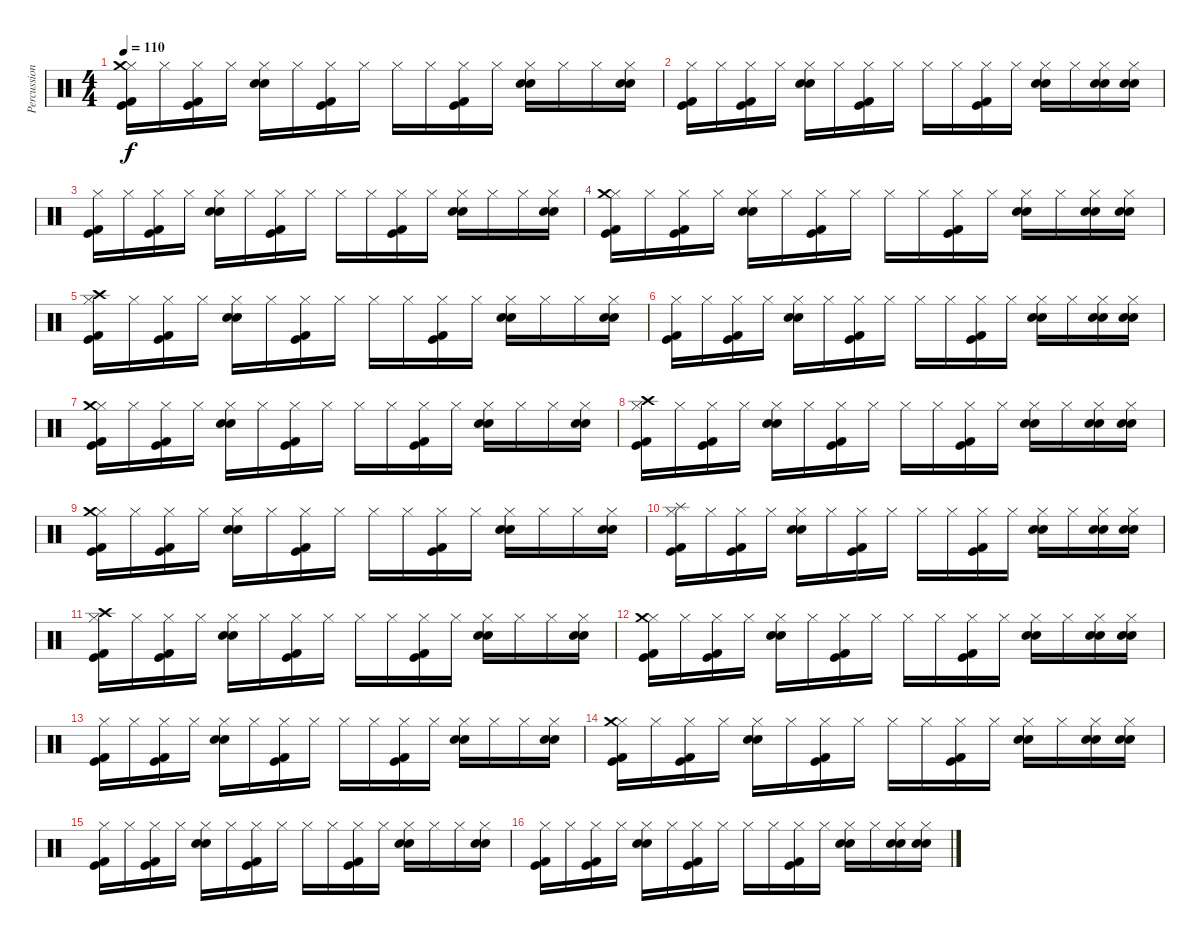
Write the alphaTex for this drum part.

\track ("Percussion" "Percussion") {instrument percussion}
\staff {score}
\articulation defaults
\ts (4 4)
\tempo 110
\clef neutral
\ks c
("Hi-Hat (closed)" "Crash medium (hit)" "Kick (hit) 2" "Kick (hit)").16{dy f} "Hi-Hat (closed)".16 ("Hi-Hat (closed)" "Kick (hit) 2" "Kick (hit)").16 "Hi-Hat (closed)".16 ("Hi-Hat (closed)" "Electric Snare (hit)" "Snare (hit) 2").16 "Hi-Hat (closed)".16 ("Hi-Hat (closed)" "Kick (hit) 2" "Kick (hit)").16 "Hi-Hat (closed)".16 "Hi-Hat (closed)".16 "Hi-Hat (closed)".16 ("Hi-Hat (closed)" "Kick (hit) 2" "Kick (hit)").16 "Hi-Hat (closed)".16 ("Hi-Hat (closed)" "Electric Snare (hit)" "Snare (hit) 2").16 "Hi-Hat (closed)".16 "Hi-Hat (closed)".16 ("Hi-Hat (closed)" "Electric Snare (hit)" "Snare (hit) 2").16 |
("Hi-Hat (closed)" "Kick (hit) 2" "Kick (hit)").16 "Hi-Hat (closed)".16 ("Hi-Hat (closed)" "Kick (hit) 2" "Kick (hit)").16 "Hi-Hat (closed)".16 ("Hi-Hat (closed)" "Electric Snare (hit)" "Snare (hit) 2").16 "Hi-Hat (closed)".16 ("Hi-Hat (closed)" "Kick (hit) 2" "Kick (hit)").16 "Hi-Hat (closed)".16 "Hi-Hat (closed)".16 "Hi-Hat (closed)".16 ("Hi-Hat (closed)" "Kick (hit) 2" "Kick (hit)").16 "Hi-Hat (closed)".16 ("Hi-Hat (closed)" "Electric Snare (hit)" "Snare (hit) 2").16 "Hi-Hat (closed)".16 ("Hi-Hat (closed)" "Electric Snare (hit)" "Snare (hit) 2").16 ("Hi-Hat (closed)" "Electric Snare (hit)" "Snare (hit) 2").16 |
("Hi-Hat (closed)" "Kick (hit) 2" "Kick (hit)").16 "Hi-Hat (closed)".16 ("Hi-Hat (closed)" "Kick (hit) 2" "Kick (hit)").16 "Hi-Hat (closed)".16 ("Hi-Hat (closed)" "Electric Snare (hit)" "Snare (hit) 2").16 "Hi-Hat (closed)".16 ("Hi-Hat (closed)" "Kick (hit) 2" "Kick (hit)").16 "Hi-Hat (closed)".16 "Hi-Hat (closed)".16 "Hi-Hat (closed)".16 ("Hi-Hat (closed)" "Kick (hit) 2" "Kick (hit)").16 "Hi-Hat (closed)".16 ("Hi-Hat (closed)" "Electric Snare (hit)" "Snare (hit) 2").16 "Hi-Hat (closed)".16 "Hi-Hat (closed)".16 ("Hi-Hat (closed)" "Electric Snare (hit)" "Snare (hit) 2").16 |
("Hi-Hat (closed)" "Crash medium (hit)" "Kick (hit) 2" "Kick (hit)").16 "Hi-Hat (closed)".16 ("Hi-Hat (closed)" "Kick (hit) 2" "Kick (hit)").16 "Hi-Hat (closed)".16 ("Hi-Hat (closed)" "Electric Snare (hit)" "Snare (hit) 2").16 "Hi-Hat (closed)".16 ("Hi-Hat (closed)" "Kick (hit) 2" "Kick (hit)").16 "Hi-Hat (closed)".16 "Hi-Hat (closed)".16 "Hi-Hat (closed)".16 ("Hi-Hat (closed)" "Kick (hit) 2" "Kick (hit)").16 "Hi-Hat (closed)".16 ("Hi-Hat (closed)" "Electric Snare (hit)" "Snare (hit) 2").16 "Hi-Hat (closed)".16 ("Hi-Hat (closed)" "Electric Snare (hit)" "Snare (hit) 2").16 ("Hi-Hat (closed)" "Electric Snare (hit)" "Snare (hit) 2").16 |
("Hi-Hat (closed)" "Crash high (hit)" "Kick (hit) 2" "Kick (hit)").16 "Hi-Hat (closed)".16 ("Hi-Hat (closed)" "Kick (hit) 2" "Kick (hit)").16 "Hi-Hat (closed)".16 ("Hi-Hat (closed)" "Electric Snare (hit)" "Snare (hit) 2").16 "Hi-Hat (closed)".16 ("Hi-Hat (closed)" "Kick (hit) 2" "Kick (hit)").16 "Hi-Hat (closed)".16 "Hi-Hat (closed)".16 "Hi-Hat (closed)".16 ("Hi-Hat (closed)" "Kick (hit) 2" "Kick (hit)").16 "Hi-Hat (closed)".16 ("Hi-Hat (closed)" "Electric Snare (hit)" "Snare (hit) 2").16 "Hi-Hat (closed)".16 "Hi-Hat (closed)".16 ("Hi-Hat (closed)" "Electric Snare (hit)" "Snare (hit) 2").16 |
("Hi-Hat (closed)" "Kick (hit) 2" "Kick (hit)").16 "Hi-Hat (closed)".16 ("Hi-Hat (closed)" "Kick (hit) 2" "Kick (hit)").16 "Hi-Hat (closed)".16 ("Hi-Hat (closed)" "Electric Snare (hit)" "Snare (hit) 2").16 "Hi-Hat (closed)".16 ("Hi-Hat (closed)" "Kick (hit) 2" "Kick (hit)").16 "Hi-Hat (closed)".16 "Hi-Hat (closed)".16 "Hi-Hat (closed)".16 ("Hi-Hat (closed)" "Kick (hit) 2" "Kick (hit)").16 "Hi-Hat (closed)".16 ("Hi-Hat (closed)" "Electric Snare (hit)" "Snare (hit) 2").16 "Hi-Hat (closed)".16 ("Hi-Hat (closed)" "Electric Snare (hit)" "Snare (hit) 2").16 ("Hi-Hat (closed)" "Electric Snare (hit)" "Snare (hit) 2").16 |
("Hi-Hat (closed)" "Crash medium (hit)" "Kick (hit) 2" "Kick (hit)").16 "Hi-Hat (closed)".16 ("Hi-Hat (closed)" "Kick (hit) 2" "Kick (hit)").16 "Hi-Hat (closed)".16 ("Hi-Hat (closed)" "Electric Snare (hit)" "Snare (hit) 2").16 "Hi-Hat (closed)".16 ("Hi-Hat (closed)" "Kick (hit) 2" "Kick (hit)").16 "Hi-Hat (closed)".16 "Hi-Hat (closed)".16 "Hi-Hat (closed)".16 ("Hi-Hat (closed)" "Kick (hit) 2" "Kick (hit)").16 "Hi-Hat (closed)".16 ("Hi-Hat (closed)" "Electric Snare (hit)" "Snare (hit) 2").16 "Hi-Hat (closed)".16 "Hi-Hat (closed)".16 ("Hi-Hat (closed)" "Electric Snare (hit)" "Snare (hit) 2").16 |
("Hi-Hat (closed)" "Crash high (hit)" "Kick (hit) 2" "Kick (hit)").16 "Hi-Hat (closed)".16 ("Hi-Hat (closed)" "Kick (hit) 2" "Kick (hit)").16 "Hi-Hat (closed)".16 ("Hi-Hat (closed)" "Electric Snare (hit)" "Snare (hit) 2").16 "Hi-Hat (closed)".16 ("Hi-Hat (closed)" "Kick (hit) 2" "Kick (hit)").16 "Hi-Hat (closed)".16 "Hi-Hat (closed)".16 "Hi-Hat (closed)".16 ("Hi-Hat (closed)" "Kick (hit) 2" "Kick (hit)").16 "Hi-Hat (closed)".16 ("Hi-Hat (closed)" "Electric Snare (hit)" "Snare (hit) 2").16 "Hi-Hat (closed)".16 ("Hi-Hat (closed)" "Electric Snare (hit)" "Snare (hit) 2").16 ("Hi-Hat (closed)" "Electric Snare (hit)" "Snare (hit) 2").16 |
("Hi-Hat (closed)" "Crash medium (hit)" "Kick (hit) 2" "Kick (hit)").16 "Hi-Hat (closed)".16 ("Hi-Hat (closed)" "Kick (hit) 2" "Kick (hit)").16 "Hi-Hat (closed)".16 ("Hi-Hat (closed)" "Electric Snare (hit)" "Snare (hit) 2").16 "Hi-Hat (closed)".16 ("Hi-Hat (closed)" "Kick (hit) 2" "Kick (hit)").16 "Hi-Hat (closed)".16 "Hi-Hat (closed)".16 "Hi-Hat (closed)".16 ("Hi-Hat (closed)" "Kick (hit) 2" "Kick (hit)").16 "Hi-Hat (closed)".16 ("Hi-Hat (closed)" "Electric Snare (hit)" "Snare (hit) 2").16 "Hi-Hat (closed)".16 "Hi-Hat (closed)".16 ("Hi-Hat (closed)" "Electric Snare (hit)" "Snare (hit) 2").16 |
("Hi-Hat (closed)" "Splash (hit)" "Kick (hit) 2" "Kick (hit)").16 "Hi-Hat (closed)".16 ("Hi-Hat (closed)" "Kick (hit) 2" "Kick (hit)").16 "Hi-Hat (closed)".16 ("Hi-Hat (closed)" "Electric Snare (hit)" "Snare (hit) 2").16 "Hi-Hat (closed)".16 ("Hi-Hat (closed)" "Kick (hit) 2" "Kick (hit)").16 "Hi-Hat (closed)".16 "Hi-Hat (closed)".16 "Hi-Hat (closed)".16 ("Hi-Hat (closed)" "Kick (hit) 2" "Kick (hit)").16 "Hi-Hat (closed)".16 ("Hi-Hat (closed)" "Electric Snare (hit)" "Snare (hit) 2").16 "Hi-Hat (closed)".16 ("Hi-Hat (closed)" "Electric Snare (hit)" "Snare (hit) 2").16 ("Hi-Hat (closed)" "Electric Snare (hit)" "Snare (hit) 2").16 |
("Hi-Hat (closed)" "Crash high (hit)" "Kick (hit) 2" "Kick (hit)").16 "Hi-Hat (closed)".16 ("Hi-Hat (closed)" "Kick (hit) 2" "Kick (hit)").16 "Hi-Hat (closed)".16 ("Hi-Hat (closed)" "Electric Snare (hit)" "Snare (hit) 2").16 "Hi-Hat (closed)".16 ("Hi-Hat (closed)" "Kick (hit) 2" "Kick (hit)").16 "Hi-Hat (closed)".16 "Hi-Hat (closed)".16 "Hi-Hat (closed)".16 ("Hi-Hat (closed)" "Kick (hit) 2" "Kick (hit)").16 "Hi-Hat (closed)".16 ("Hi-Hat (closed)" "Electric Snare (hit)" "Snare (hit) 2").16 "Hi-Hat (closed)".16 "Hi-Hat (closed)".16 ("Hi-Hat (closed)" "Electric Snare (hit)" "Snare (hit) 2").16 |
("Hi-Hat (closed)" "Crash medium (hit)" "Kick (hit) 2" "Kick (hit)").16{volume 7} "Hi-Hat (closed)".16 ("Hi-Hat (closed)" "Kick (hit) 2" "Kick (hit)").16 "Hi-Hat (closed)".16 ("Hi-Hat (closed)" "Electric Snare (hit)" "Snare (hit) 2").16 "Hi-Hat (closed)".16 ("Hi-Hat (closed)" "Kick (hit) 2" "Kick (hit)").16 "Hi-Hat (closed)".16 "Hi-Hat (closed)".16 "Hi-Hat (closed)".16 ("Hi-Hat (closed)" "Kick (hit) 2" "Kick (hit)").16 "Hi-Hat (closed)".16 ("Hi-Hat (closed)" "Electric Snare (hit)" "Snare (hit) 2").16 "Hi-Hat (closed)".16 ("Hi-Hat (closed)" "Electric Snare (hit)" "Snare (hit) 2").16 ("Hi-Hat (closed)" "Electric Snare (hit)" "Snare (hit) 2").16 |
("Hi-Hat (closed)" "Kick (hit) 2" "Kick (hit)").16 "Hi-Hat (closed)".16 ("Hi-Hat (closed)" "Kick (hit) 2" "Kick (hit)").16 "Hi-Hat (closed)".16 ("Hi-Hat (closed)" "Electric Snare (hit)" "Snare (hit) 2").16 "Hi-Hat (closed)".16 ("Hi-Hat (closed)" "Kick (hit) 2" "Kick (hit)").16 "Hi-Hat (closed)".16 "Hi-Hat (closed)".16 "Hi-Hat (closed)".16 ("Hi-Hat (closed)" "Kick (hit) 2" "Kick (hit)").16 "Hi-Hat (closed)".16 ("Hi-Hat (closed)" "Electric Snare (hit)" "Snare (hit) 2").16 "Hi-Hat (closed)".16 "Hi-Hat (closed)".16 ("Hi-Hat (closed)" "Electric Snare (hit)" "Snare (hit) 2").16 |
("Hi-Hat (closed)" "Crash medium (hit)" "Kick (hit) 2" "Kick (hit)").16 "Hi-Hat (closed)".16 ("Hi-Hat (closed)" "Kick (hit) 2" "Kick (hit)").16 "Hi-Hat (closed)".16 ("Hi-Hat (closed)" "Electric Snare (hit)" "Snare (hit) 2").16 "Hi-Hat (closed)".16 ("Hi-Hat (closed)" "Kick (hit) 2" "Kick (hit)").16 "Hi-Hat (closed)".16 "Hi-Hat (closed)".16 "Hi-Hat (closed)".16 ("Hi-Hat (closed)" "Kick (hit) 2" "Kick (hit)").16 "Hi-Hat (closed)".16 ("Hi-Hat (closed)" "Electric Snare (hit)" "Snare (hit) 2").16 "Hi-Hat (closed)".16 ("Hi-Hat (closed)" "Electric Snare (hit)" "Snare (hit) 2").16 ("Hi-Hat (closed)" "Electric Snare (hit)" "Snare (hit) 2").16 |
("Hi-Hat (closed)" "Kick (hit) 2" "Kick (hit)").16 "Hi-Hat (closed)".16 ("Hi-Hat (closed)" "Kick (hit) 2" "Kick (hit)").16 "Hi-Hat (closed)".16 ("Hi-Hat (closed)" "Electric Snare (hit)" "Snare (hit) 2").16 "Hi-Hat (closed)".16 ("Hi-Hat (closed)" "Kick (hit) 2" "Kick (hit)").16 "Hi-Hat (closed)".16 "Hi-Hat (closed)".16 "Hi-Hat (closed)".16 ("Hi-Hat (closed)" "Kick (hit) 2" "Kick (hit)").16 "Hi-Hat (closed)".16 ("Hi-Hat (closed)" "Electric Snare (hit)" "Snare (hit) 2").16 "Hi-Hat (closed)".16 "Hi-Hat (closed)".16 ("Hi-Hat (closed)" "Electric Snare (hit)" "Snare (hit) 2").16 |
("Hi-Hat (closed)" "Kick (hit) 2" "Kick (hit)").16{volume 0} "Hi-Hat (closed)".16 ("Hi-Hat (closed)" "Kick (hit) 2" "Kick (hit)").16 "Hi-Hat (closed)".16 ("Hi-Hat (closed)" "Electric Snare (hit)" "Snare (hit) 2").16 "Hi-Hat (closed)".16 ("Hi-Hat (closed)" "Kick (hit) 2" "Kick (hit)").16 "Hi-Hat (closed)".16 "Hi-Hat (closed)".16 "Hi-Hat (closed)".16 ("Hi-Hat (closed)" "Kick (hit) 2" "Kick (hit)").16 "Hi-Hat (closed)".16 ("Hi-Hat (closed)" "Electric Snare (hit)" "Snare (hit) 2").16 "Hi-Hat (closed)".16 ("Hi-Hat (closed)" "Electric Snare (hit)" "Snare (hit) 2").16 ("Hi-Hat (closed)" "Electric Snare (hit)" "Snare (hit) 2").16
